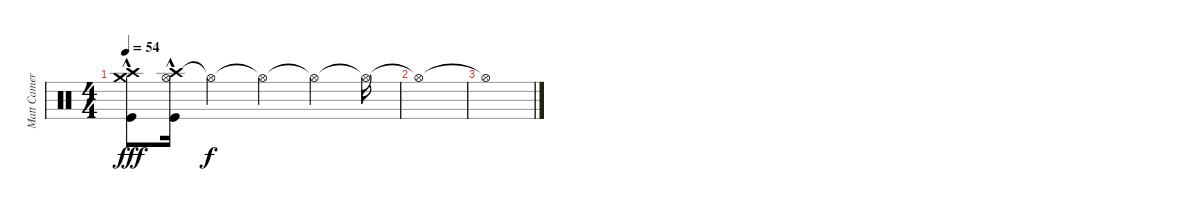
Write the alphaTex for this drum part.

\track ("Matt Cameron" "Matt Camer") {instrument percussion}
\staff {score}
\articulation defaults
\ts (4 4)
\tempo 54
\clef neutral
\ks c
("Crash high (hit)"{hac} "Crash medium (hit)"{hac} "Kick (hit)"{hac}).8{dy fff} ("Crash high (hit)"{hac} "Hi-Hat (open)"{hac} "Kick (hit)"{hac}).16 "Hi-Hat (open)"{t}.4{dy f} "Hi-Hat (open)"{t}.4 "Hi-Hat (open)"{t}.4 "Hi-Hat (open)"{t}.16 |
"Hi-Hat (open)"{t}.1 |
"Hi-Hat (open)"{t}.1
